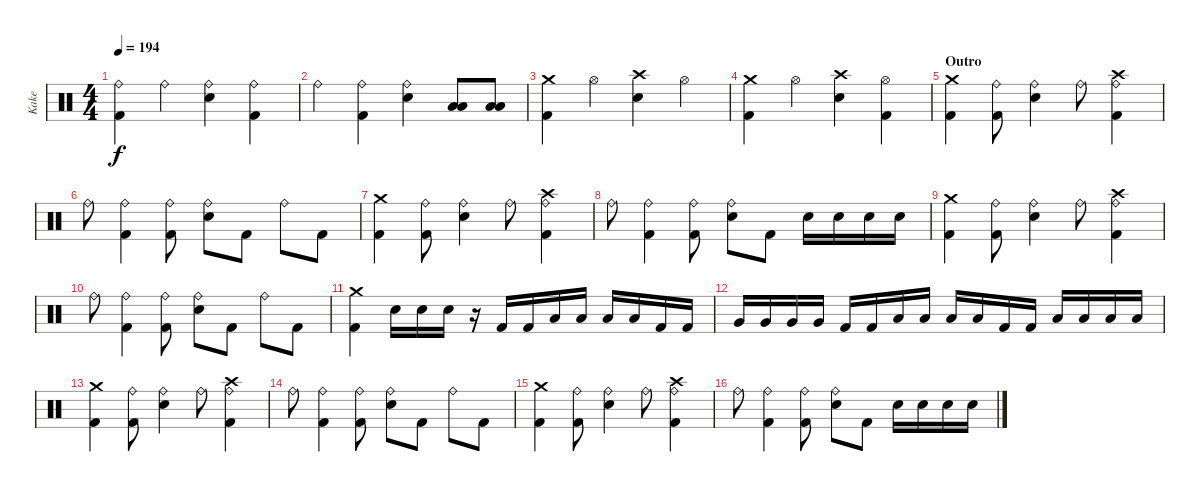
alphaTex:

\track ("Kake" "Kake") {instrument percussion}
\staff {score}
\articulation defaults
\ts (4 4)
\tempo 194
\clef neutral
\ks c
("Ride (bell)" "Kick (hit) 2").4{dy f} "Ride (bell)".4 ("Ride (bell)" "Electric Snare (hit)").4 ("Ride (bell)" "Kick (hit) 2").4 |
"Ride (bell)".4 ("Ride (bell)" "Kick (hit) 2").4 ("Ride (bell)" "Electric Snare (hit)").4 ("Low Tom (hit)" "Low Floor Tom (hit)").8 ("Low Tom (hit)" "Low Floor Tom (hit)").8 |
("Crash medium (hit)" "Kick (hit) 2").4 "Hi-Hat (open)".4 ("Crash high (hit)" "Electric Snare (hit)").4 "Hi-Hat (open)".4 |
("Crash medium (hit)" "Kick (hit) 2").4 "Hi-Hat (open)".4 ("Crash high (hit)" "Electric Snare (hit)").4 ("Hi-Hat (open)" "Kick (hit) 2").4 |
\section ("" "Outro")
("Crash medium (hit)" "Kick (hit) 2").4 ("Ride (bell)" "Kick (hit) 2").8 ("Ride (bell)" "Electric Snare (hit)").4 "Ride (bell)".8 ("Ride (bell)" "Crash high (hit)" "Kick (hit) 2").4 |
"Ride (bell)".8 ("Ride (bell)" "Kick (hit) 2").4 ("Ride (bell)" "Kick (hit) 2").8 ("Ride (bell)" "Electric Snare (hit)").8 "Kick (hit) 2".8 "Ride (bell)".8 "Kick (hit) 2".8 |
("Crash medium (hit)" "Kick (hit) 2").4 ("Ride (bell)" "Kick (hit) 2").8 ("Ride (bell)" "Electric Snare (hit)").4 "Ride (bell)".8 ("Ride (bell)" "Crash high (hit)" "Kick (hit) 2").4 |
"Ride (bell)".8 ("Ride (bell)" "Kick (hit) 2").4 ("Ride (bell)" "Kick (hit) 2").8 ("Ride (bell)" "Electric Snare (hit)").8 "Kick (hit) 2".8 "Electric Snare (hit)".16 "Electric Snare (hit)".16 "Electric Snare (hit)".16 "Electric Snare (hit)".16 |
("Crash medium (hit)" "Kick (hit) 2").4 ("Ride (bell)" "Kick (hit) 2").8 ("Ride (bell)" "Electric Snare (hit)").4 "Ride (bell)".8 ("Ride (bell)" "Crash high (hit)" "Kick (hit) 2").4 |
"Ride (bell)".8 ("Ride (bell)" "Kick (hit) 2").4 ("Ride (bell)" "Kick (hit) 2").8 ("Ride (bell)" "Electric Snare (hit)").8 "Kick (hit) 2".8 "Ride (bell)".8 "Kick (hit) 2".8 |
("Crash medium (hit)" "Kick (hit) 2").4 "Electric Snare (hit)".16 "Electric Snare (hit)".16 "Electric Snare (hit)".16 r.16 "Kick (hit) 2".16 "Kick (hit) 2".16 "Low Tom (hit)".16 "Low Tom (hit)".16 "Low Tom (hit)".16 "Low Tom (hit)".16 "Kick (hit) 2".16 "Kick (hit) 2".16 |
"Very Low Tom (hit)".16 "Very Low Tom (hit)".16 "Very Low Tom (hit)".16 "Very Low Tom (hit)".16 "Kick (hit) 2".16 "Kick (hit) 2".16 "Low Floor Tom (hit)".16 "Low Floor Tom (hit)".16 "Low Floor Tom (hit)".16 "Low Floor Tom (hit)".16 "Kick (hit) 2".16 "Kick (hit) 2".16 "Low Floor Tom (hit)".16 "Low Floor Tom (hit)".16 "Low Floor Tom (hit)".16 "Low Floor Tom (hit)".16 |
("Crash medium (hit)" "Kick (hit) 2").4 ("Ride (bell)" "Kick (hit) 2").8 ("Ride (bell)" "Electric Snare (hit)").4 "Ride (bell)".8 ("Ride (bell)" "Crash high (hit)" "Kick (hit) 2").4 |
"Ride (bell)".8 ("Ride (bell)" "Kick (hit) 2").4 ("Ride (bell)" "Kick (hit) 2").8 ("Ride (bell)" "Electric Snare (hit)").8 "Kick (hit) 2".8 "Ride (bell)".8 "Kick (hit) 2".8 |
("Crash medium (hit)" "Kick (hit) 2").4 ("Ride (bell)" "Kick (hit) 2").8 ("Ride (bell)" "Electric Snare (hit)").4 "Ride (bell)".8 ("Ride (bell)" "Crash high (hit)" "Kick (hit) 2").4 |
"Ride (bell)".8 ("Ride (bell)" "Kick (hit) 2").4 ("Ride (bell)" "Kick (hit) 2").8 ("Ride (bell)" "Electric Snare (hit)").8 "Kick (hit) 2".8 "Electric Snare (hit)".16 "Electric Snare (hit)".16 "Electric Snare (hit)".16 "Electric Snare (hit)".16
